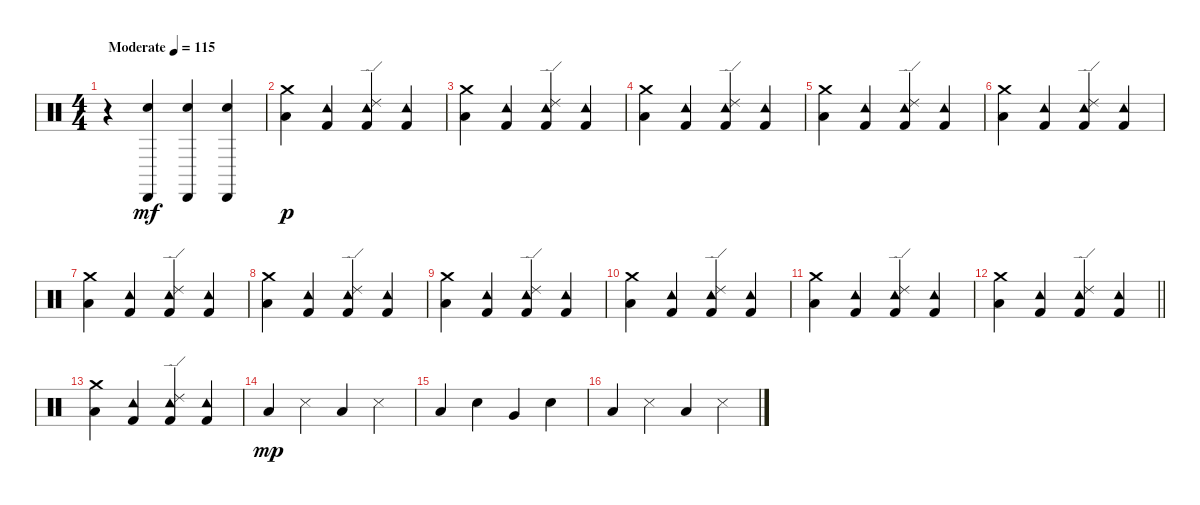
\track "" {instrument percussion}
\staff {score}
\articulation defaults
\ts (4 4)
\section ("" "")
\tempo (115 "Moderate")
\clef neutral
\ks c
r.4{dy mf} ("Hand Clap (hit)" "Cabasa (hit)").4 ("Hand Clap (hit)" "Cabasa (hit)").4 ("Hand Clap (hit)" "Cabasa (hit)").4 |
("Low Floor Tom (hit)" "Crash medium (hit)").4{dy p} ("Kick (hit) 2" "Tambourine (hit)").4 ("Kick (hit) 2" "Tambourine (hit)" "Ride (edge) 2").4 ("Kick (hit) 2" "Tambourine (hit)").4 |
("Low Floor Tom (hit)" "Crash medium (hit)").4 ("Kick (hit) 2" "Tambourine (hit)").4 ("Kick (hit) 2" "Tambourine (hit)" "Ride (edge) 2").4 ("Kick (hit) 2" "Tambourine (hit)").4 |
("Low Floor Tom (hit)" "Crash medium (hit)").4 ("Kick (hit) 2" "Tambourine (hit)").4 ("Kick (hit) 2" "Tambourine (hit)" "Ride (edge) 2").4 ("Kick (hit) 2" "Tambourine (hit)").4 |
("Low Floor Tom (hit)" "Crash medium (hit)").4 ("Kick (hit) 2" "Tambourine (hit)").4 ("Kick (hit) 2" "Tambourine (hit)" "Ride (edge) 2").4 ("Kick (hit) 2" "Tambourine (hit)").4 |
("Low Floor Tom (hit)" "Crash medium (hit)").4 ("Kick (hit) 2" "Tambourine (hit)").4 ("Kick (hit) 2" "Tambourine (hit)" "Ride (edge) 2").4 ("Kick (hit) 2" "Tambourine (hit)").4 |
("Low Floor Tom (hit)" "Crash medium (hit)").4 ("Kick (hit) 2" "Tambourine (hit)").4 ("Kick (hit) 2" "Tambourine (hit)" "Ride (edge) 2").4 ("Kick (hit) 2" "Tambourine (hit)").4 |
("Low Floor Tom (hit)" "Crash medium (hit)").4 ("Kick (hit) 2" "Tambourine (hit)").4 ("Kick (hit) 2" "Tambourine (hit)" "Ride (edge) 2").4 ("Kick (hit) 2" "Tambourine (hit)").4 |
("Low Floor Tom (hit)" "Crash medium (hit)").4 ("Kick (hit) 2" "Tambourine (hit)").4 ("Kick (hit) 2" "Tambourine (hit)" "Ride (edge) 2").4 ("Kick (hit) 2" "Tambourine (hit)").4 |
("Low Floor Tom (hit)" "Crash medium (hit)").4 ("Kick (hit) 2" "Tambourine (hit)").4 ("Kick (hit) 2" "Tambourine (hit)" "Ride (edge) 2").4 ("Kick (hit) 2" "Tambourine (hit)").4 |
("Low Floor Tom (hit)" "Crash medium (hit)").4 ("Kick (hit) 2" "Tambourine (hit)").4 ("Kick (hit) 2" "Tambourine (hit)" "Ride (edge) 2").4 ("Kick (hit) 2" "Tambourine (hit)").4 |
\barLineRight lightlight
("Low Floor Tom (hit)" "Crash medium (hit)").4 ("Kick (hit) 2" "Tambourine (hit)").4 ("Kick (hit) 2" "Tambourine (hit)" "Ride (edge) 2").4 ("Kick (hit) 2" "Tambourine (hit)").4 |
\section ("" "")
("Low Floor Tom (hit)" "Crash medium (hit)").4 ("Kick (hit) 2" "Tambourine (hit)").4 ("Kick (hit) 2" "Tambourine (hit)" "Ride (edge) 2").4 ("Kick (hit) 2" "Tambourine (hit)").4 |
"Low Floor Tom (hit)".4{dy mp} "Snare (side stick) 3".4 "Low Floor Tom (hit)".4 "Snare (side stick) 3".4 |
"Low Floor Tom (hit)".4 "Electric Snare (hit)".4 "Very Low Tom (hit)".4 "Electric Snare (hit)".4 |
"Low Floor Tom (hit)".4 "Snare (side stick) 3".4 "Low Floor Tom (hit)".4 "Snare (side stick) 3".4
